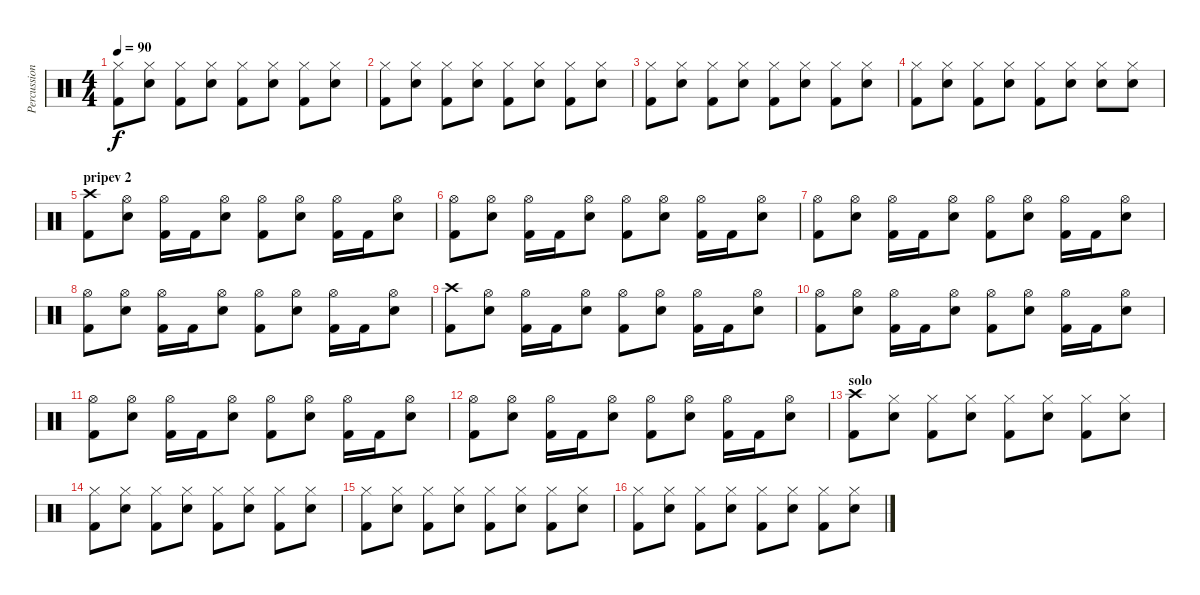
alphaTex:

\track ("Percussion" "Percussion") {instrument percussion}
\staff {score}
\articulation defaults
\ts (4 4)
\tempo 90
\clef neutral
\ks c
("Kick (hit) 2" "Hi-Hat (closed)").8{dy f} ("Snare (hit) 2" "Hi-Hat (closed)").8 ("Kick (hit) 2" "Hi-Hat (closed)").8 ("Snare (hit) 2" "Hi-Hat (closed)").8 ("Kick (hit) 2" "Hi-Hat (closed)").8 ("Snare (hit) 2" "Hi-Hat (closed)").8 ("Kick (hit) 2" "Hi-Hat (closed)").8 ("Snare (hit) 2" "Hi-Hat (closed)").8 |
("Kick (hit) 2" "Hi-Hat (closed)").8 ("Snare (hit) 2" "Hi-Hat (closed)").8 ("Kick (hit) 2" "Hi-Hat (closed)").8 ("Snare (hit) 2" "Hi-Hat (closed)").8 ("Kick (hit) 2" "Hi-Hat (closed)").8 ("Snare (hit) 2" "Hi-Hat (closed)").8 ("Kick (hit) 2" "Hi-Hat (closed)").8 ("Snare (hit) 2" "Hi-Hat (closed)").8 |
("Kick (hit) 2" "Hi-Hat (closed)").8 ("Snare (hit) 2" "Hi-Hat (closed)").8 ("Kick (hit) 2" "Hi-Hat (closed)").8 ("Snare (hit) 2" "Hi-Hat (closed)").8 ("Kick (hit) 2" "Hi-Hat (closed)").8 ("Snare (hit) 2" "Hi-Hat (closed)").8 ("Kick (hit) 2" "Hi-Hat (closed)").8 ("Snare (hit) 2" "Hi-Hat (closed)").8 |
("Kick (hit) 2" "Hi-Hat (closed)").8 ("Snare (hit) 2" "Hi-Hat (closed)").8 ("Kick (hit) 2" "Hi-Hat (closed)").8 ("Snare (hit) 2" "Hi-Hat (closed)").8 ("Kick (hit) 2" "Hi-Hat (closed)").8 ("Snare (hit) 2" "Hi-Hat (closed)").8 ("Hi-Hat (closed)" "Snare (hit) 2").8 ("Snare (hit) 2" "Hi-Hat (closed)").8 |
\section ("" "pripev 2")
("Kick (hit) 2" "Crash high (hit)").8 ("Snare (hit) 2" "Hi-Hat (open)").8 ("Kick (hit) 2" "Hi-Hat (open)").16 "Kick (hit) 2".16 ("Snare (hit) 2" "Hi-Hat (open)").8 ("Kick (hit) 2" "Hi-Hat (open)").8 ("Snare (hit) 2" "Hi-Hat (open)").8 ("Kick (hit) 2" "Hi-Hat (open)").16 "Kick (hit) 2".16 ("Snare (hit) 2" "Hi-Hat (open)").8 |
("Kick (hit) 2" "Hi-Hat (open)").8 ("Snare (hit) 2" "Hi-Hat (open)").8 ("Kick (hit) 2" "Hi-Hat (open)").16 "Kick (hit) 2".16 ("Snare (hit) 2" "Hi-Hat (open)").8 ("Kick (hit) 2" "Hi-Hat (open)").8 ("Snare (hit) 2" "Hi-Hat (open)").8 ("Kick (hit) 2" "Hi-Hat (open)").16 "Kick (hit) 2".16 ("Snare (hit) 2" "Hi-Hat (open)").8 |
("Kick (hit) 2" "Hi-Hat (open)").8 ("Snare (hit) 2" "Hi-Hat (open)").8 ("Kick (hit) 2" "Hi-Hat (open)").16 "Kick (hit) 2".16 ("Snare (hit) 2" "Hi-Hat (open)").8 ("Kick (hit) 2" "Hi-Hat (open)").8 ("Snare (hit) 2" "Hi-Hat (open)").8 ("Kick (hit) 2" "Hi-Hat (open)").16 "Kick (hit) 2".16 ("Snare (hit) 2" "Hi-Hat (open)").8 |
("Kick (hit) 2" "Hi-Hat (open)").8 ("Snare (hit) 2" "Hi-Hat (open)").8 ("Kick (hit) 2" "Hi-Hat (open)").16 "Kick (hit) 2".16 ("Snare (hit) 2" "Hi-Hat (open)").8 ("Kick (hit) 2" "Hi-Hat (open)").8 ("Snare (hit) 2" "Hi-Hat (open)").8 ("Kick (hit) 2" "Hi-Hat (open)").16 "Kick (hit) 2".16 ("Snare (hit) 2" "Hi-Hat (open)").8 |
("Kick (hit) 2" "Crash high (hit)").8 ("Snare (hit) 2" "Hi-Hat (open)").8 ("Kick (hit) 2" "Hi-Hat (open)").16 "Kick (hit) 2".16 ("Snare (hit) 2" "Hi-Hat (open)").8 ("Kick (hit) 2" "Hi-Hat (open)").8 ("Snare (hit) 2" "Hi-Hat (open)").8 ("Kick (hit) 2" "Hi-Hat (open)").16 "Kick (hit) 2".16 ("Snare (hit) 2" "Hi-Hat (open)").8 |
("Kick (hit) 2" "Hi-Hat (open)").8 ("Snare (hit) 2" "Hi-Hat (open)").8 ("Kick (hit) 2" "Hi-Hat (open)").16 "Kick (hit) 2".16 ("Snare (hit) 2" "Hi-Hat (open)").8 ("Kick (hit) 2" "Hi-Hat (open)").8 ("Snare (hit) 2" "Hi-Hat (open)").8 ("Kick (hit) 2" "Hi-Hat (open)").16 "Kick (hit) 2".16 ("Snare (hit) 2" "Hi-Hat (open)").8 |
("Kick (hit) 2" "Hi-Hat (open)").8 ("Snare (hit) 2" "Hi-Hat (open)").8 ("Kick (hit) 2" "Hi-Hat (open)").16 "Kick (hit) 2".16 ("Snare (hit) 2" "Hi-Hat (open)").8 ("Kick (hit) 2" "Hi-Hat (open)").8 ("Snare (hit) 2" "Hi-Hat (open)").8 ("Kick (hit) 2" "Hi-Hat (open)").16 "Kick (hit) 2".16 ("Snare (hit) 2" "Hi-Hat (open)").8 |
("Kick (hit) 2" "Hi-Hat (open)").8 ("Snare (hit) 2" "Hi-Hat (open)").8 ("Kick (hit) 2" "Hi-Hat (open)").16 "Kick (hit) 2".16 ("Snare (hit) 2" "Hi-Hat (open)").8 ("Kick (hit) 2" "Hi-Hat (open)").8 ("Snare (hit) 2" "Hi-Hat (open)").8 ("Kick (hit) 2" "Hi-Hat (open)").16 "Kick (hit) 2".16 ("Snare (hit) 2" "Hi-Hat (open)").8 |
\section ("" "solo")
("Kick (hit) 2" "Crash high (hit)").8 ("Snare (hit) 2" "Hi-Hat (closed)").8 ("Kick (hit) 2" "Hi-Hat (closed)").8 ("Snare (hit) 2" "Hi-Hat (closed)").8 ("Kick (hit) 2" "Hi-Hat (closed)").8 ("Snare (hit) 2" "Hi-Hat (closed)").8 ("Kick (hit) 2" "Hi-Hat (closed)").8 ("Snare (hit) 2" "Hi-Hat (closed)").8 |
("Kick (hit) 2" "Hi-Hat (closed)").8 ("Snare (hit) 2" "Hi-Hat (closed)").8 ("Kick (hit) 2" "Hi-Hat (closed)").8 ("Snare (hit) 2" "Hi-Hat (closed)").8 ("Kick (hit) 2" "Hi-Hat (closed)").8 ("Snare (hit) 2" "Hi-Hat (closed)").8 ("Kick (hit) 2" "Hi-Hat (closed)").8 ("Snare (hit) 2" "Hi-Hat (closed)").8 |
("Kick (hit) 2" "Hi-Hat (closed)").8 ("Snare (hit) 2" "Hi-Hat (closed)").8 ("Kick (hit) 2" "Hi-Hat (closed)").8 ("Snare (hit) 2" "Hi-Hat (closed)").8 ("Kick (hit) 2" "Hi-Hat (closed)").8 ("Snare (hit) 2" "Hi-Hat (closed)").8 ("Kick (hit) 2" "Hi-Hat (closed)").8 ("Snare (hit) 2" "Hi-Hat (closed)").8 |
("Kick (hit) 2" "Hi-Hat (closed)").8 ("Snare (hit) 2" "Hi-Hat (closed)").8 ("Kick (hit) 2" "Hi-Hat (closed)").8 ("Snare (hit) 2" "Hi-Hat (closed)").8 ("Kick (hit) 2" "Hi-Hat (closed)").8 ("Snare (hit) 2" "Hi-Hat (closed)").8 ("Kick (hit) 2" "Hi-Hat (closed)").8 ("Snare (hit) 2" "Hi-Hat (closed)").8
